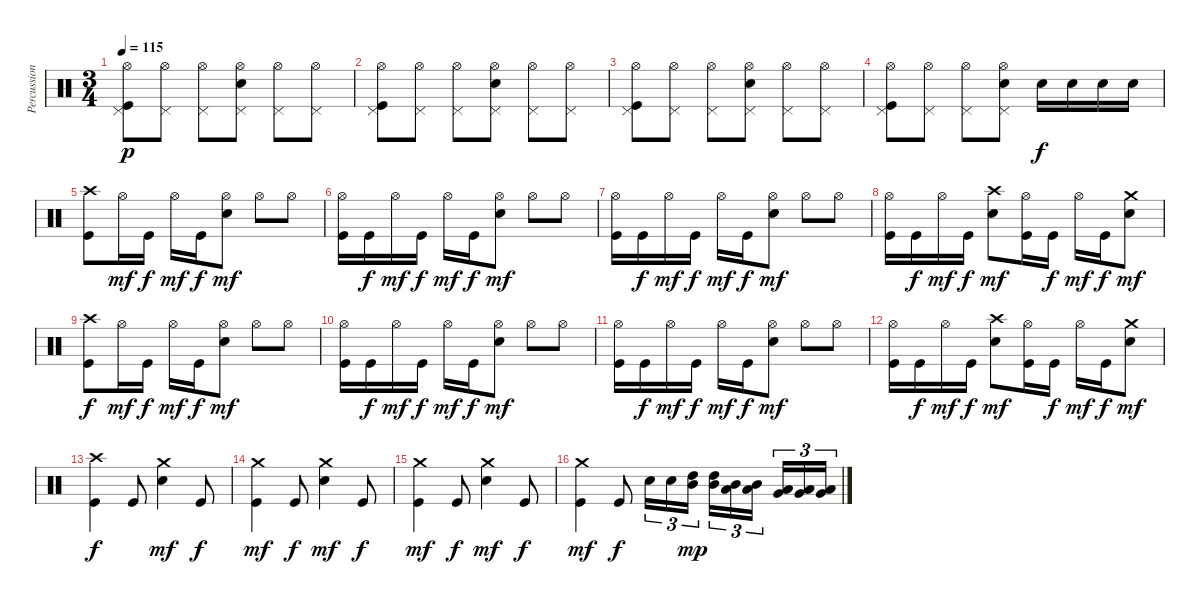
\track ("Percussions" "Percussion") {instrument percussion}
\staff {score}
\articulation defaults
\ts (3 4)
\tempo 115
\clef neutral
\ks c
("Kick (hit)" "Pedal Hi-Hat (hit)" "Hi-Hat (open)").8{dy p} ("Pedal Hi-Hat (hit)" "Hi-Hat (open)").8 ("Pedal Hi-Hat (hit)" "Hi-Hat (open)").8 ("Electric Snare (hit)" "Pedal Hi-Hat (hit)" "Hi-Hat (open)").8 ("Pedal Hi-Hat (hit)" "Hi-Hat (open)").8 ("Pedal Hi-Hat (hit)" "Hi-Hat (open)").8 |
("Kick (hit)" "Pedal Hi-Hat (hit)" "Hi-Hat (open)").8 ("Pedal Hi-Hat (hit)" "Hi-Hat (open)").8 ("Pedal Hi-Hat (hit)" "Hi-Hat (open)").8 ("Electric Snare (hit)" "Pedal Hi-Hat (hit)" "Hi-Hat (open)").8 ("Pedal Hi-Hat (hit)" "Hi-Hat (open)").8 ("Pedal Hi-Hat (hit)" "Hi-Hat (open)").8 |
("Kick (hit)" "Pedal Hi-Hat (hit)" "Hi-Hat (open)").8 ("Pedal Hi-Hat (hit)" "Hi-Hat (open)").8 ("Pedal Hi-Hat (hit)" "Hi-Hat (open)").8 ("Electric Snare (hit)" "Pedal Hi-Hat (hit)" "Hi-Hat (open)").8 ("Pedal Hi-Hat (hit)" "Hi-Hat (open)").8 ("Pedal Hi-Hat (hit)" "Hi-Hat (open)").8 |
("Kick (hit)" "Pedal Hi-Hat (hit)" "Hi-Hat (open)").8 ("Pedal Hi-Hat (hit)" "Hi-Hat (open)").8 ("Pedal Hi-Hat (hit)" "Hi-Hat (open)").8 ("Electric Snare (hit)" "Pedal Hi-Hat (hit)" "Hi-Hat (open)").8 "Electric Snare (hit)".16{dy f} "Electric Snare (hit)".16 "Electric Snare (hit)".16 "Electric Snare (hit)".16 |
("Kick (hit)" "Crash high (hit)").8 "Hi-Hat (open)".16{dy mf} "Kick (hit)".16{dy f} "Hi-Hat (open)".16{dy mf} "Kick (hit)".16{dy f} ("Electric Snare (hit)" "Hi-Hat (open)").8{dy mf} "Hi-Hat (open)".8 "Hi-Hat (open)".8 |
("Kick (hit)" "Hi-Hat (open)").16 "Kick (hit)".16{dy f} "Hi-Hat (open)".16{dy mf} "Kick (hit)".16{dy f} "Hi-Hat (open)".16{dy mf} "Kick (hit)".16{dy f} ("Electric Snare (hit)" "Hi-Hat (open)").8{dy mf} "Hi-Hat (open)".8 "Hi-Hat (open)".8 |
("Kick (hit)" "Hi-Hat (open)").16 "Kick (hit)".16{dy f} "Hi-Hat (open)".16{dy mf} "Kick (hit)".16{dy f} "Hi-Hat (open)".16{dy mf} "Kick (hit)".16{dy f} ("Electric Snare (hit)" "Hi-Hat (open)").8{dy mf} "Hi-Hat (open)".8 "Hi-Hat (open)".8 |
("Kick (hit)" "Hi-Hat (open)").16 "Kick (hit)".16{dy f} "Hi-Hat (open)".16{dy mf} "Kick (hit)".16{dy f} ("Electric Snare (hit)" "Crash high (hit)").8{dy mf} ("Kick (hit)" "Hi-Hat (open)").16 "Kick (hit)".16{dy f} "Hi-Hat (open)".16{dy mf} "Kick (hit)".16{dy f} ("Electric Snare (hit)" "Crash medium (hit)").8{dy mf} |
("Kick (hit)" "Crash high (hit)").8{dy f} "Hi-Hat (open)".16{dy mf} "Kick (hit)".16{dy f} "Hi-Hat (open)".16{dy mf} "Kick (hit)".16{dy f} ("Electric Snare (hit)" "Hi-Hat (open)").8{dy mf} "Hi-Hat (open)".8 "Hi-Hat (open)".8 |
("Kick (hit)" "Hi-Hat (open)").16 "Kick (hit)".16{dy f} "Hi-Hat (open)".16{dy mf} "Kick (hit)".16{dy f} "Hi-Hat (open)".16{dy mf} "Kick (hit)".16{dy f} ("Electric Snare (hit)" "Hi-Hat (open)").8{dy mf} "Hi-Hat (open)".8 "Hi-Hat (open)".8 |
("Kick (hit)" "Hi-Hat (open)").16 "Kick (hit)".16{dy f} "Hi-Hat (open)".16{dy mf} "Kick (hit)".16{dy f} "Hi-Hat (open)".16{dy mf} "Kick (hit)".16{dy f} ("Electric Snare (hit)" "Hi-Hat (open)").8{dy mf} "Hi-Hat (open)".8 "Hi-Hat (open)".8 |
("Kick (hit)" "Hi-Hat (open)").16 "Kick (hit)".16{dy f} "Hi-Hat (open)".16{dy mf} "Kick (hit)".16{dy f} ("Electric Snare (hit)" "Crash high (hit)").8{dy mf} ("Kick (hit)" "Hi-Hat (open)").16 "Kick (hit)".16{dy f} "Hi-Hat (open)".16{dy mf} "Kick (hit)".16{dy f} ("Electric Snare (hit)" "Crash medium (hit)").8{dy mf} |
("Kick (hit)" "Crash high (hit)").4{dy f} "Kick (hit)".8 ("Electric Snare (hit)" "Crash medium (hit)").4{dy mf} "Kick (hit)".8{dy f} |
("Kick (hit)" "Crash medium (hit)").4{dy mf} "Kick (hit)".8{dy f} ("Electric Snare (hit)" "Crash medium (hit)").4{dy mf} "Kick (hit)".8{dy f} |
("Kick (hit)" "Crash medium (hit)").4{dy mf} "Kick (hit)".8{dy f} ("Electric Snare (hit)" "Crash medium (hit)").4{dy mf} "Kick (hit)".8{dy f} |
("Kick (hit)" "Crash medium (hit)").4{dy mf} "Kick (hit)".8{dy f} "Electric Snare (hit)".16{tu (3 2)} "Electric Snare (hit)".16{tu (3 2)} ("Mid Tom (hit)" "High Tom (hit)").16{tu (3 2) dy mp} ("Mid Tom (hit)" "High Tom (hit)").16{tu (3 2)} ("Low Tom (hit)" "Mid Tom (hit)").16{tu (3 2)} ("Low Tom (hit)" "Mid Tom (hit)").16{tu (3 2)} ("Very Low Tom (hit)" "Low Tom (hit)").16{tu (3 2)} ("Very Low Tom (hit)" "Low Tom (hit)").16{tu (3 2)} ("Low Floor Tom (hit)" "Very Low Tom (hit)").16{tu (3 2)}
